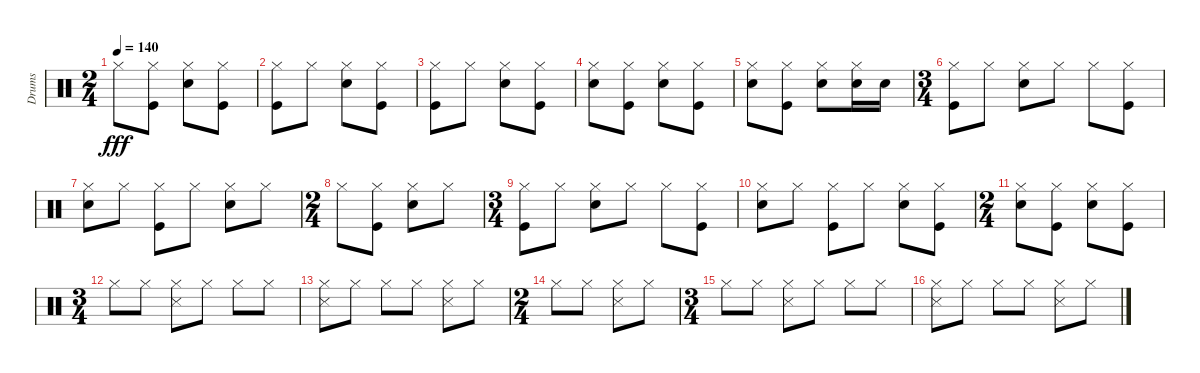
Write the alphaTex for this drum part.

\track ("Drums" "Drums") {instrument percussion}
\staff {score}
\articulation defaults
\ts (2 4)
\tempo 140
\clef neutral
\ks c "Hi-Hat (closed)".8{dy fff}
("Hi-Hat (closed)" "Kick (hit)").8 ("Hi-Hat (closed)" "Electric Snare (hit)").8 ("Hi-Hat (closed)" "Kick (hit)").8 |
("Hi-Hat (closed)" "Kick (hit)").8 "Hi-Hat (closed)".8 ("Hi-Hat (closed)" "Electric Snare (hit)").8 ("Hi-Hat (closed)" "Kick (hit)").8 |
("Hi-Hat (closed)" "Kick (hit)").8 "Hi-Hat (closed)".8 ("Hi-Hat (closed)" "Electric Snare (hit)").8 ("Hi-Hat (closed)" "Kick (hit)").8 |
("Hi-Hat (closed)" "Electric Snare (hit)").8 ("Hi-Hat (closed)" "Kick (hit)").8 ("Hi-Hat (closed)" "Electric Snare (hit)").8 ("Hi-Hat (closed)" "Kick (hit)").8 |
("Hi-Hat (closed)" "Electric Snare (hit)").8 ("Hi-Hat (closed)" "Kick (hit)").8 ("Hi-Hat (closed)" "Electric Snare (hit)").8 ("Hi-Hat (closed)" "Electric Snare (hit)").16 "Electric Snare (hit)".16 |
\ts (3 4)
("Hi-Hat (closed)" "Kick (hit)").8 "Hi-Hat (closed)".8 ("Hi-Hat (closed)" "Electric Snare (hit)").8 "Hi-Hat (closed)".8 "Hi-Hat (closed)".8 ("Hi-Hat (closed)" "Kick (hit)").8 |
("Hi-Hat (closed)" "Electric Snare (hit)").8 "Hi-Hat (closed)".8 ("Hi-Hat (closed)" "Kick (hit)").8 "Hi-Hat (closed)".8 ("Hi-Hat (closed)" "Electric Snare (hit)").8 "Hi-Hat (closed)".8 |
\ts (2 4)
"Hi-Hat (closed)".8 ("Hi-Hat (closed)" "Kick (hit)").8 ("Hi-Hat (closed)" "Electric Snare (hit)").8 "Hi-Hat (closed)".8 |
\ts (3 4)
("Hi-Hat (closed)" "Kick (hit)").8 "Hi-Hat (closed)".8 ("Hi-Hat (closed)" "Electric Snare (hit)").8 "Hi-Hat (closed)".8 "Hi-Hat (closed)".8 ("Hi-Hat (closed)" "Kick (hit)").8 |
("Hi-Hat (closed)" "Electric Snare (hit)").8 "Hi-Hat (closed)".8 ("Hi-Hat (closed)" "Kick (hit)").8 "Hi-Hat (closed)".8 ("Hi-Hat (closed)" "Electric Snare (hit)").8 ("Hi-Hat (closed)" "Kick (hit)").8 |
\ts (2 4)
("Hi-Hat (closed)" "Electric Snare (hit)").8 ("Hi-Hat (closed)" "Kick (hit)").8 ("Hi-Hat (closed)" "Electric Snare (hit)").8 ("Hi-Hat (closed)" "Kick (hit)").8 |
\ts (3 4)
"Hi-Hat (closed)".8 "Hi-Hat (closed)".8 ("Hi-Hat (closed)" "Snare (side stick) 3").8 "Hi-Hat (closed)".8 "Hi-Hat (closed)".8 "Hi-Hat (closed)".8 |
("Hi-Hat (closed)" "Snare (side stick) 3").8 "Hi-Hat (closed)".8 "Hi-Hat (closed)".8 "Hi-Hat (closed)".8 ("Hi-Hat (closed)" "Snare (side stick) 3").8 "Hi-Hat (closed)".8 |
\ts (2 4)
"Hi-Hat (closed)".8 "Hi-Hat (closed)".8 ("Hi-Hat (closed)" "Snare (side stick) 3").8 "Hi-Hat (closed)".8 |
\ts (3 4)
"Hi-Hat (closed)".8 "Hi-Hat (closed)".8 ("Hi-Hat (closed)" "Snare (side stick) 3").8 "Hi-Hat (closed)".8 "Hi-Hat (closed)".8 "Hi-Hat (closed)".8 |
("Hi-Hat (closed)" "Snare (side stick) 3").8 "Hi-Hat (closed)".8 "Hi-Hat (closed)".8 "Hi-Hat (closed)".8 ("Hi-Hat (closed)" "Snare (side stick) 3").8 "Hi-Hat (closed)".8
